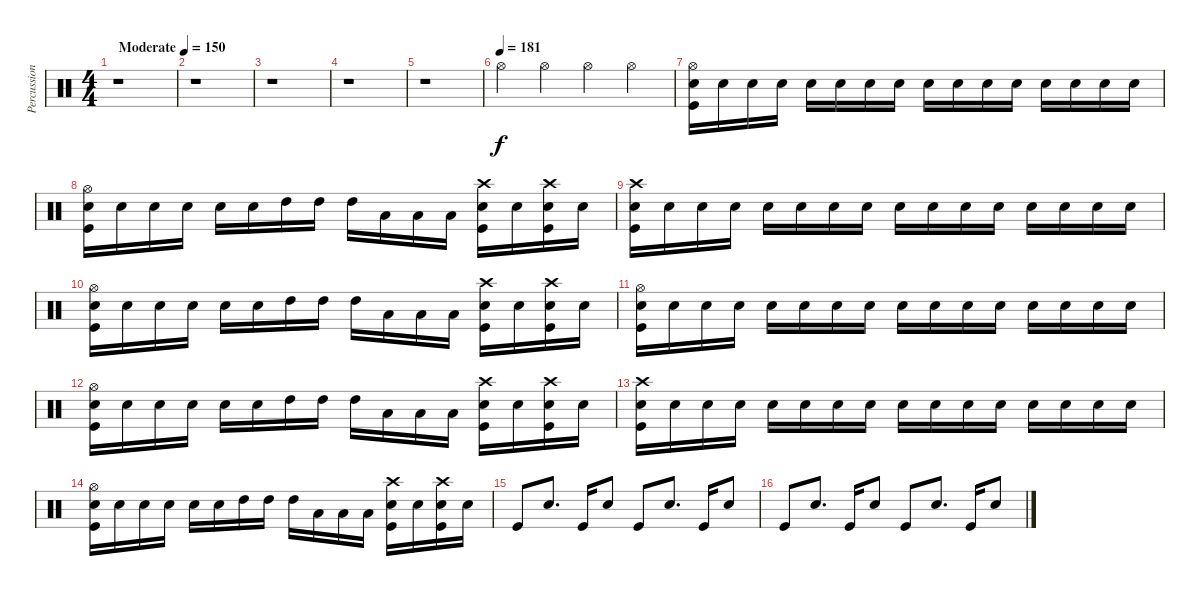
\track ("Percussion" "Percussion") {instrument percussion}
\staff {score}
\articulation defaults
\ts (4 4)
\tempo (150 "Moderate")
\tempo 120
\tempo (150 "Moderate")
\clef neutral
\ks c
r.1{dy f} |
r.1 |
r.1 |
r.1 |
r.1 |
\tempo (181)
"Hi-Hat (open)".4 "Hi-Hat (open)".4 "Hi-Hat (open)".4 "Hi-Hat (open)".4 |
("Hi-Hat (open)" "Electric Snare (hit)" "Kick (hit)").16 "Electric Snare (hit)".16 "Electric Snare (hit)".16 "Electric Snare (hit)".16 "Electric Snare (hit)".16 "Electric Snare (hit)".16 "Electric Snare (hit)".16 "Electric Snare (hit)".16 "Electric Snare (hit)".16 "Electric Snare (hit)".16 "Electric Snare (hit)".16 "Electric Snare (hit)".16 "Electric Snare (hit)".16 "Electric Snare (hit)".16 "Electric Snare (hit)".16 "Electric Snare (hit)".16 |
("Hi-Hat (open)" "Electric Snare (hit)" "Kick (hit)").16 "Electric Snare (hit)".16 "Electric Snare (hit)".16 "Electric Snare (hit)".16 "Electric Snare (hit)".16 "Electric Snare (hit)".16 "High Tom (hit)".16 "High Tom (hit)".16 "High Tom (hit)".16 "Low Tom (hit)".16 "Low Tom (hit)".16 "Low Tom (hit)".16 ("Crash high (hit)" "Electric Snare (hit)" "Kick (hit)").16 "Electric Snare (hit)".16 ("Crash high (hit)" "Electric Snare (hit)" "Kick (hit)").16 "Electric Snare (hit)".16 |
("Crash high (hit)" "Electric Snare (hit)" "Kick (hit)").16 "Electric Snare (hit)".16 "Electric Snare (hit)".16 "Electric Snare (hit)".16 "Electric Snare (hit)".16 "Electric Snare (hit)".16 "Electric Snare (hit)".16 "Electric Snare (hit)".16 "Electric Snare (hit)".16 "Electric Snare (hit)".16 "Electric Snare (hit)".16 "Electric Snare (hit)".16 "Electric Snare (hit)".16 "Electric Snare (hit)".16 "Electric Snare (hit)".16 "Electric Snare (hit)".16 |
("Hi-Hat (open)" "Electric Snare (hit)" "Kick (hit)").16 "Electric Snare (hit)".16 "Electric Snare (hit)".16 "Electric Snare (hit)".16 "Electric Snare (hit)".16 "Electric Snare (hit)".16 "High Tom (hit)".16 "High Tom (hit)".16 "High Tom (hit)".16 "Low Tom (hit)".16 "Low Tom (hit)".16 "Low Tom (hit)".16 ("Crash high (hit)" "Electric Snare (hit)" "Kick (hit)").16 "Electric Snare (hit)".16 ("Crash high (hit)" "Electric Snare (hit)" "Kick (hit)").16 "Electric Snare (hit)".16 |
("Hi-Hat (open)" "Electric Snare (hit)" "Kick (hit)").16 "Electric Snare (hit)".16 "Electric Snare (hit)".16 "Electric Snare (hit)".16 "Electric Snare (hit)".16 "Electric Snare (hit)".16 "Electric Snare (hit)".16 "Electric Snare (hit)".16 "Electric Snare (hit)".16 "Electric Snare (hit)".16 "Electric Snare (hit)".16 "Electric Snare (hit)".16 "Electric Snare (hit)".16 "Electric Snare (hit)".16 "Electric Snare (hit)".16 "Electric Snare (hit)".16 |
("Hi-Hat (open)" "Electric Snare (hit)" "Kick (hit)").16 "Electric Snare (hit)".16 "Electric Snare (hit)".16 "Electric Snare (hit)".16 "Electric Snare (hit)".16 "Electric Snare (hit)".16 "High Tom (hit)".16 "High Tom (hit)".16 "High Tom (hit)".16 "Low Tom (hit)".16 "Low Tom (hit)".16 "Low Tom (hit)".16 ("Crash high (hit)" "Electric Snare (hit)" "Kick (hit)").16 "Electric Snare (hit)".16 ("Crash high (hit)" "Electric Snare (hit)" "Kick (hit)").16 "Electric Snare (hit)".16 |
("Crash high (hit)" "Electric Snare (hit)" "Kick (hit)").16 "Electric Snare (hit)".16 "Electric Snare (hit)".16 "Electric Snare (hit)".16 "Electric Snare (hit)".16 "Electric Snare (hit)".16 "Electric Snare (hit)".16 "Electric Snare (hit)".16 "Electric Snare (hit)".16 "Electric Snare (hit)".16 "Electric Snare (hit)".16 "Electric Snare (hit)".16 "Electric Snare (hit)".16 "Electric Snare (hit)".16 "Electric Snare (hit)".16 "Electric Snare (hit)".16 |
("Hi-Hat (open)" "Electric Snare (hit)" "Kick (hit)").16 "Electric Snare (hit)".16 "Electric Snare (hit)".16 "Electric Snare (hit)".16 "Electric Snare (hit)".16 "Electric Snare (hit)".16 "High Tom (hit)".16 "High Tom (hit)".16 "High Tom (hit)".16 "Low Tom (hit)".16 "Low Tom (hit)".16 "Low Tom (hit)".16 ("Crash high (hit)" "Electric Snare (hit)" "Kick (hit)").16 "Electric Snare (hit)".16 ("Crash high (hit)" "Electric Snare (hit)" "Kick (hit)").16 "Electric Snare (hit)".16 |
"Kick (hit)".8 "Electric Snare (hit)".8{d} "Kick (hit)".16 "Electric Snare (hit)".8 "Kick (hit)".8 "Electric Snare (hit)".8{d} "Kick (hit)".16 "Electric Snare (hit)".8 |
"Kick (hit)".8 "Electric Snare (hit)".8{d} "Kick (hit)".16 "Electric Snare (hit)".8 "Kick (hit)".8 "Electric Snare (hit)".8{d} "Kick (hit)".16 "Electric Snare (hit)".8
